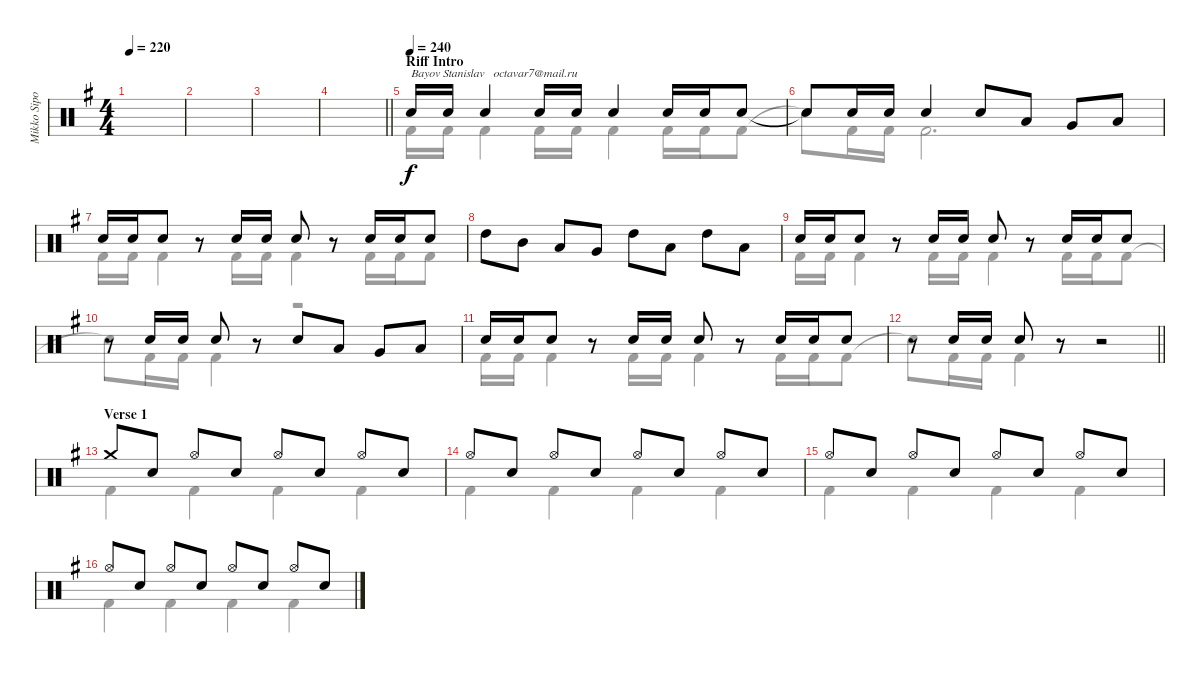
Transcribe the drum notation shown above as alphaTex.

\track ("Mikko Sipola (drums)" "Mikko Sipo") {instrument percussion}
\staff {score}
\articulation defaults
\voice
\ts (4 4)
\tempo 220
\clef neutral
\ks eminor
|
|
|
\barLineRight lightlight
|
\section ("" "Riff Intro")
\tempo (240)
"Electric Snare (hit)".16{txt "Bayov Stanislav   octavar7@mail.ru"} "Electric Snare (hit)".16 "Electric Snare (hit)".4 "Electric Snare (hit)".16 "Electric Snare (hit)".16 "Electric Snare (hit)".4 "Electric Snare (hit)".16 "Electric Snare (hit)".16 "Electric Snare (hit)".8 |
"Snare (hit)"{t}.8 "Electric Snare (hit)".16 "Electric Snare (hit)".16 "Electric Snare (hit)".4 "Electric Snare (hit)".8 "Low Tom (hit)".8 "Very Low Tom (hit)".8 "Low Floor Tom (hit)".8 |
"Electric Snare (hit)".16 "Electric Snare (hit)".16 "Electric Snare (hit)".8 r.8 "Electric Snare (hit)".16 "Electric Snare (hit)".16 "Electric Snare (hit)".8 r.8 "Electric Snare (hit)".16 "Electric Snare (hit)".16 "Electric Snare (hit)".8 |
"High Tom (hit)".8 "Mid Tom (hit)".8 "Low Tom (hit)".8 "Very Low Tom (hit)".8 "High Tom (hit)".8 "Low Tom (hit)".8 "High Tom (hit)".8 "Low Tom (hit)".8 |
"Electric Snare (hit)".16 "Electric Snare (hit)".16 "Electric Snare (hit)".8 r.8 "Electric Snare (hit)".16 "Electric Snare (hit)".16 "Electric Snare (hit)".8 r.8 "Electric Snare (hit)".16 "Electric Snare (hit)".16 "Electric Snare (hit)".8 |
r.8 "Electric Snare (hit)".16 "Electric Snare (hit)".16 "Electric Snare (hit)".8 r.8 "Electric Snare (hit)".8 "Low Tom (hit)".8 "Very Low Tom (hit)".8 "Low Floor Tom (hit)".8 |
"Electric Snare (hit)".16 "Electric Snare (hit)".16 "Electric Snare (hit)".8 r.8 "Electric Snare (hit)".16 "Electric Snare (hit)".16 "Electric Snare (hit)".8 r.8 "Electric Snare (hit)".16 "Electric Snare (hit)".16 "Electric Snare (hit)".8 |
\barLineRight lightlight
r.8 "Electric Snare (hit)".16 "Electric Snare (hit)".16 "Electric Snare (hit)".8 r.8 r.2 |
\section ("" "Verse 1")
"Crash medium (hit)".8 "Electric Snare (hit)".8 "Hi-Hat (open)".8 "Electric Snare (hit)".8 "Hi-Hat (open)".8 "Electric Snare (hit)".8 "Hi-Hat (open)".8 "Electric Snare (hit)".8 |
"Hi-Hat (open)".8 "Electric Snare (hit)".8 "Hi-Hat (open)".8 "Electric Snare (hit)".8 "Hi-Hat (open)".8 "Electric Snare (hit)".8 "Hi-Hat (open)".8 "Electric Snare (hit)".8 |
"Hi-Hat (open)".8 "Electric Snare (hit)".8 "Hi-Hat (open)".8 "Electric Snare (hit)".8 "Hi-Hat (open)".8 "Electric Snare (hit)".8 "Hi-Hat (open)".8 "Electric Snare (hit)".8 |
"Hi-Hat (open)".8 "Electric Snare (hit)".8 "Hi-Hat (open)".8 "Electric Snare (hit)".8 "Hi-Hat (open)".8 "Electric Snare (hit)".8 "Hi-Hat (open)".8 "Electric Snare (hit)".8
\voice
\clef neutral
\ottava regular
\simile none
\ks eminor
|
|
|
\barLineRight lightlight
|
"Kick (hit) 2".16 "Kick (hit) 2".16 "Kick (hit) 2".4 "Kick (hit) 2".16 "Kick (hit) 2".16 "Kick (hit) 2".4 "Kick (hit) 2".16 "Kick (hit) 2".16 "Kick (hit) 2".8 |
"Snare (hit)"{t}.8 "Kick (hit) 2".16 "Kick (hit) 2".16 "Kick (hit) 2".2{d} |
"Kick (hit) 2".16 "Kick (hit) 2".16 "Kick (hit) 2".4 "Kick (hit) 2".16 "Kick (hit) 2".16 "Kick (hit) 2".4 "Kick (hit) 2".16 "Kick (hit) 2".16 "Kick (hit) 2".8 |
|
"Kick (hit) 2".16 "Kick (hit) 2".16 "Kick (hit) 2".4 "Kick (hit) 2".16 "Kick (hit) 2".16 "Kick (hit) 2".4 "Kick (hit) 2".16 "Kick (hit) 2".16 "Kick (hit) 2".8 |
"Snare (hit)"{t}.8 "Kick (hit) 2".16 "Kick (hit) 2".16 "Kick (hit) 2".4 r.2 |
"Kick (hit) 2".16 "Kick (hit) 2".16 "Kick (hit) 2".4 "Kick (hit) 2".16 "Kick (hit) 2".16 "Kick (hit) 2".4 "Kick (hit) 2".16 "Kick (hit) 2".16 "Kick (hit) 2".8 |
\barLineRight lightlight "Snare (hit)"{t}.8 "Kick (hit) 2".16 "Kick (hit) 2".16 "Kick (hit) 2".4
r.2 |
"Kick (hit) 2".4 "Kick (hit) 2".4 "Kick (hit) 2".4 "Kick (hit) 2".4 |
"Kick (hit) 2".4 "Kick (hit) 2".4 "Kick (hit) 2".4 "Kick (hit) 2".4 |
"Kick (hit) 2".4 "Kick (hit) 2".4 "Kick (hit) 2".4 "Kick (hit) 2".4 |
"Kick (hit) 2".4 "Kick (hit) 2".4 "Kick (hit) 2".4 "Kick (hit) 2".4
